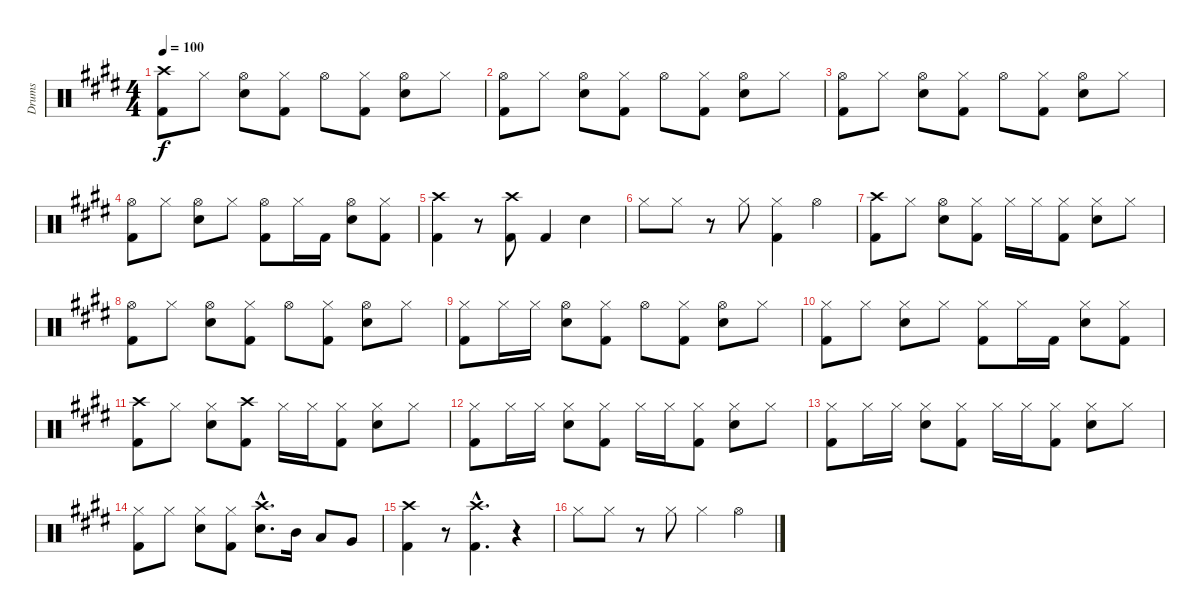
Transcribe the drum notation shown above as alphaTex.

\track ("Drums" "Drums") {instrument percussion}
\staff {score}
\articulation defaults
\ts (4 4)
\tempo 100
\clef neutral
\ks e
("Crash high (hit)" "Kick (hit) 2").8{dy f} "Hi-Hat (closed)".8 ("Hi-Hat (open)" "Electric Snare (hit)").8 ("Hi-Hat (closed)" "Kick (hit) 2").8 "Hi-Hat (open)".8 ("Hi-Hat (closed)" "Kick (hit) 2").8 ("Hi-Hat (open)" "Electric Snare (hit)").8 "Hi-Hat (closed)".8 |
("Hi-Hat (open)" "Kick (hit) 2").8 "Hi-Hat (closed)".8 ("Hi-Hat (open)" "Electric Snare (hit)").8 ("Hi-Hat (closed)" "Kick (hit) 2").8 "Hi-Hat (open)".8 ("Hi-Hat (closed)" "Kick (hit) 2").8 ("Hi-Hat (open)" "Electric Snare (hit)").8 "Hi-Hat (closed)".8 |
("Hi-Hat (open)" "Kick (hit) 2").8 "Hi-Hat (closed)".8 ("Hi-Hat (open)" "Electric Snare (hit)").8 ("Hi-Hat (closed)" "Kick (hit) 2").8 "Hi-Hat (open)".8 ("Hi-Hat (closed)" "Kick (hit) 2").8 ("Hi-Hat (open)" "Electric Snare (hit)").8 "Hi-Hat (closed)".8 |
("Hi-Hat (open)" "Kick (hit) 2").8 "Hi-Hat (closed)".8 ("Hi-Hat (open)" "Electric Snare (hit)").8 "Hi-Hat (closed)".8 ("Hi-Hat (open)" "Kick (hit) 2").8 "Hi-Hat (closed)".16 "Kick (hit) 2".16 ("Hi-Hat (open)" "Electric Snare (hit)").8 ("Hi-Hat (closed)" "Kick (hit) 2").8 |
("Crash high (hit)" "Kick (hit) 2").4 r.8 ("Crash high (hit)" "Kick (hit) 2").8 "Kick (hit) 2".4 "Electric Snare (hit)".4 |
"Hi-Hat (closed)".8 "Hi-Hat (closed)".8 r.8 "Hi-Hat (closed)".8 ("Hi-Hat (closed)" "Kick (hit) 2").4 "Hi-Hat (open)".4 |
("Crash high (hit)" "Kick (hit) 2").8 "Hi-Hat (closed)".8 ("Hi-Hat (open)" "Electric Snare (hit)").8 ("Hi-Hat (closed)" "Kick (hit) 2").8 "Hi-Hat (closed)".16 "Hi-Hat (closed)".16 ("Hi-Hat (closed)" "Kick (hit) 2").8 ("Hi-Hat (closed)" "Electric Snare (hit)").8 "Hi-Hat (closed)".8 |
("Hi-Hat (open)" "Kick (hit) 2").8 "Hi-Hat (closed)".8 ("Hi-Hat (open)" "Electric Snare (hit)").8 ("Hi-Hat (closed)" "Kick (hit) 2").8 "Hi-Hat (open)".8 ("Hi-Hat (closed)" "Kick (hit) 2").8 ("Hi-Hat (open)" "Electric Snare (hit)").8 "Hi-Hat (closed)".8 |
("Hi-Hat (closed)" "Kick (hit) 2").8 "Hi-Hat (closed)".16 "Hi-Hat (closed)".16 ("Hi-Hat (open)" "Electric Snare (hit)").8 ("Hi-Hat (closed)" "Kick (hit) 2").8 "Hi-Hat (open)".8 ("Hi-Hat (closed)" "Kick (hit) 2").8 ("Hi-Hat (open)" "Electric Snare (hit)").8 "Hi-Hat (closed)".8 |
("Hi-Hat (closed)" "Kick (hit) 2").8 "Hi-Hat (closed)".8 ("Hi-Hat (closed)" "Electric Snare (hit)").8 "Hi-Hat (closed)".8 ("Hi-Hat (closed)" "Kick (hit) 2").8 "Hi-Hat (closed)".16 "Kick (hit) 2".16 ("Hi-Hat (closed)" "Electric Snare (hit)").8 ("Hi-Hat (closed)" "Kick (hit) 2").8 |
("Crash high (hit)" "Kick (hit) 2").8 "Hi-Hat (closed)".8 ("Hi-Hat (closed)" "Electric Snare (hit)").8 ("Crash high (hit)" "Kick (hit) 2").8 "Hi-Hat (closed)".16 "Hi-Hat (closed)".16 ("Hi-Hat (closed)" "Kick (hit) 2").8 ("Hi-Hat (closed)" "Electric Snare (hit)").8 "Hi-Hat (closed)".8 |
("Hi-Hat (closed)" "Kick (hit) 2").8 "Hi-Hat (closed)".16 "Hi-Hat (closed)".16 ("Hi-Hat (closed)" "Electric Snare (hit)").8 ("Hi-Hat (closed)" "Kick (hit) 2").8 "Hi-Hat (closed)".16 "Hi-Hat (closed)".16 ("Hi-Hat (closed)" "Kick (hit) 2").8 ("Hi-Hat (closed)" "Electric Snare (hit)").8 "Hi-Hat (closed)".8 |
("Hi-Hat (closed)" "Kick (hit) 2").8 "Hi-Hat (closed)".16 "Hi-Hat (closed)".16 ("Hi-Hat (closed)" "Electric Snare (hit)").8 ("Hi-Hat (closed)" "Kick (hit) 2").8 "Hi-Hat (closed)".16 "Hi-Hat (closed)".16 ("Hi-Hat (closed)" "Kick (hit) 2").8 ("Hi-Hat (closed)" "Electric Snare (hit)").8 "Hi-Hat (closed)".8 |
("Hi-Hat (closed)" "Kick (hit) 2").8 "Hi-Hat (closed)".8 ("Hi-Hat (closed)" "Electric Snare (hit)").8 ("Hi-Hat (closed)" "Kick (hit) 2").8 ("Crash high (hit)"{hac} "Electric Snare (hit)"{hac}).8{d} "Mid Tom (hit)".16 "Low Tom (hit)".8 "Very Low Tom (hit)".8 |
("Crash high (hit)" "Kick (hit) 2").4 r.8 ("Crash high (hit)"{hac} "Kick (hit) 2"{hac}).4{d} r.4 |
"Hi-Hat (closed)".8 "Hi-Hat (closed)".8 r.8 "Hi-Hat (closed)".8 "Hi-Hat (closed)".4 "Hi-Hat (open)".4
